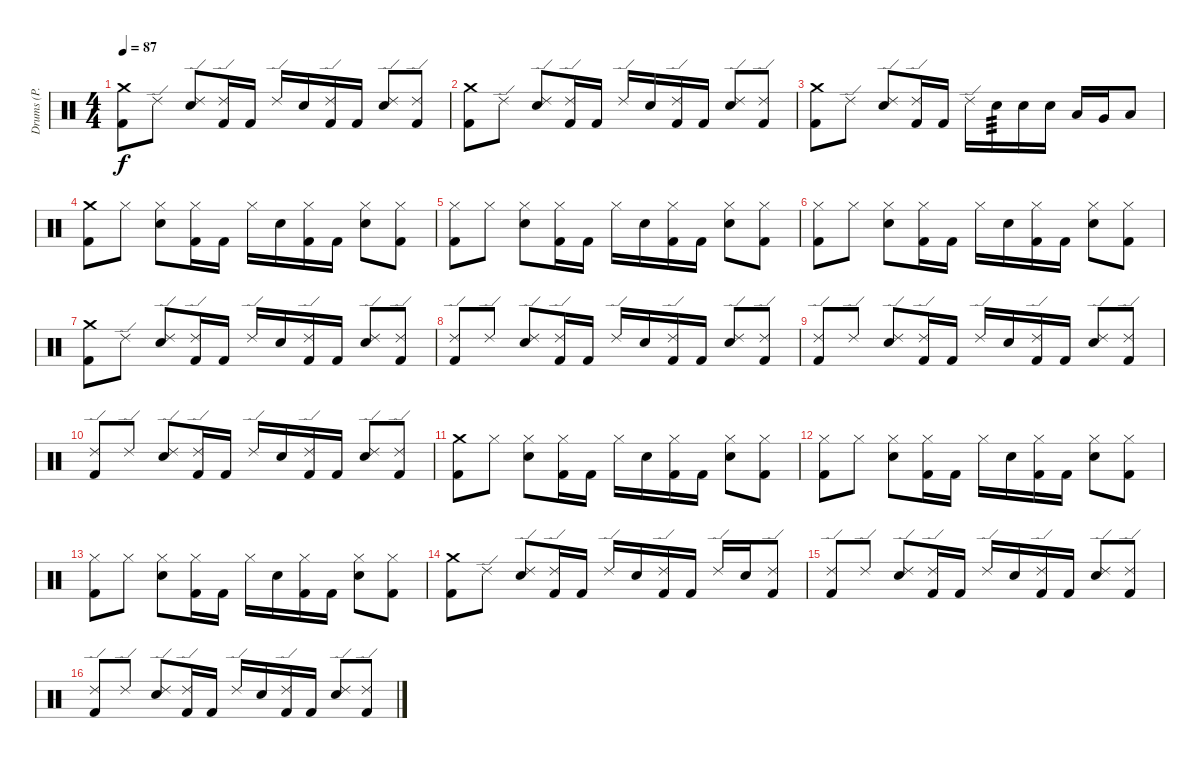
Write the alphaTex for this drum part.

\track ("Drums (P. Selway)" "Drums (P. ") {instrument percussion}
\staff {score}
\articulation defaults
\ts (4 4)
\tempo 87
\clef neutral
\ks c
("Crash medium (hit)" "Kick (hit) 2").8{dy f} "Ride (edge) 2".8 ("Ride (edge) 2" "Electric Snare (hit)").8 ("Ride (edge) 2" "Kick (hit) 2").16 "Kick (hit) 2".16 "Ride (edge) 2".16 "Electric Snare (hit)".16 ("Ride (edge) 2" "Kick (hit) 2").16 "Kick (hit) 2".16 ("Ride (edge) 2" "Electric Snare (hit)").8 ("Ride (edge) 2" "Kick (hit) 2").8 |
("Crash medium (hit)" "Kick (hit) 2").8 "Ride (edge) 2".8 ("Ride (edge) 2" "Electric Snare (hit)").8 ("Ride (edge) 2" "Kick (hit) 2").16 "Kick (hit) 2".16 "Ride (edge) 2".16 "Electric Snare (hit)".16 ("Ride (edge) 2" "Kick (hit) 2").16 "Kick (hit) 2".16 ("Ride (edge) 2" "Electric Snare (hit)").8 ("Ride (edge) 2" "Kick (hit) 2").8 |
("Crash medium (hit)" "Kick (hit) 2").8 "Ride (edge) 2".8 ("Ride (edge) 2" "Electric Snare (hit)").8 ("Ride (edge) 2" "Kick (hit) 2").16 "Kick (hit) 2".16 "Ride (edge) 2".16 "Electric Snare (hit)".16{tp 3} "Electric Snare (hit)".16 "Electric Snare (hit)".16 "Low Tom (hit)".16 "Very Low Tom (hit)".16 "Low Floor Tom (hit)".8 |
("Crash medium (hit)" "Kick (hit) 2").8 "Hi-Hat (closed)".8 ("Hi-Hat (closed)" "Electric Snare (hit)").8 ("Hi-Hat (closed)" "Kick (hit) 2").16 "Kick (hit) 2".16 "Hi-Hat (closed)".16 "Electric Snare (hit)".16 ("Hi-Hat (closed)" "Kick (hit) 2").16 "Kick (hit) 2".16 ("Hi-Hat (closed)" "Electric Snare (hit)").8 ("Hi-Hat (closed)" "Kick (hit) 2").8 |
("Hi-Hat (closed)" "Kick (hit) 2").8 "Hi-Hat (closed)".8 ("Hi-Hat (closed)" "Electric Snare (hit)").8 ("Hi-Hat (closed)" "Kick (hit) 2").16 "Kick (hit) 2".16 "Hi-Hat (closed)".16 "Electric Snare (hit)".16 ("Hi-Hat (closed)" "Kick (hit) 2").16 "Kick (hit) 2".16 ("Hi-Hat (closed)" "Electric Snare (hit)").8 ("Hi-Hat (closed)" "Kick (hit) 2").8 |
("Hi-Hat (closed)" "Kick (hit) 2").8 "Hi-Hat (closed)".8 ("Hi-Hat (closed)" "Electric Snare (hit)").8 ("Hi-Hat (closed)" "Kick (hit) 2").16 "Kick (hit) 2".16 "Hi-Hat (closed)".16 "Electric Snare (hit)".16 ("Hi-Hat (closed)" "Kick (hit) 2").16 "Kick (hit) 2".16 ("Hi-Hat (closed)" "Electric Snare (hit)").8 ("Hi-Hat (closed)" "Kick (hit) 2").8 |
("Crash medium (hit)" "Kick (hit) 2").8 "Ride (edge) 2".8 ("Ride (edge) 2" "Electric Snare (hit)").8 ("Ride (edge) 2" "Kick (hit) 2").16 "Kick (hit) 2".16 "Ride (edge) 2".16 "Electric Snare (hit)".16 ("Ride (edge) 2" "Kick (hit) 2").16 "Kick (hit) 2".16 ("Ride (edge) 2" "Electric Snare (hit)").8 ("Ride (edge) 2" "Kick (hit) 2").8 |
("Ride (edge) 2" "Kick (hit) 2").8 "Ride (edge) 2".8 ("Ride (edge) 2" "Electric Snare (hit)").8 ("Ride (edge) 2" "Kick (hit) 2").16 "Kick (hit) 2".16 "Ride (edge) 2".16 "Electric Snare (hit)".16 ("Ride (edge) 2" "Kick (hit) 2").16 "Kick (hit) 2".16 ("Ride (edge) 2" "Electric Snare (hit)").8 ("Ride (edge) 2" "Kick (hit) 2").8 |
("Ride (edge) 2" "Kick (hit) 2").8 "Ride (edge) 2".8 ("Ride (edge) 2" "Electric Snare (hit)").8 ("Ride (edge) 2" "Kick (hit) 2").16 "Kick (hit) 2".16 "Ride (edge) 2".16 "Electric Snare (hit)".16 ("Ride (edge) 2" "Kick (hit) 2").16 "Kick (hit) 2".16 ("Ride (edge) 2" "Electric Snare (hit)").8 ("Ride (edge) 2" "Kick (hit) 2").8 |
("Ride (edge) 2" "Kick (hit) 2").8 "Ride (edge) 2".8 ("Ride (edge) 2" "Electric Snare (hit)").8 ("Ride (edge) 2" "Kick (hit) 2").16 "Kick (hit) 2".16 "Ride (edge) 2".16 "Electric Snare (hit)".16 ("Ride (edge) 2" "Kick (hit) 2").16 "Kick (hit) 2".16 ("Ride (edge) 2" "Electric Snare (hit)").8 ("Ride (edge) 2" "Kick (hit) 2").8 |
("Crash medium (hit)" "Kick (hit) 2").8 "Hi-Hat (closed)".8 ("Hi-Hat (closed)" "Electric Snare (hit)").8 ("Hi-Hat (closed)" "Kick (hit) 2").16 "Kick (hit) 2".16 "Hi-Hat (closed)".16 "Electric Snare (hit)".16 ("Hi-Hat (closed)" "Kick (hit) 2").16 "Kick (hit) 2".16 ("Hi-Hat (closed)" "Electric Snare (hit)").8 ("Hi-Hat (closed)" "Kick (hit) 2").8 |
("Hi-Hat (closed)" "Kick (hit) 2").8 "Hi-Hat (closed)".8 ("Hi-Hat (closed)" "Electric Snare (hit)").8 ("Hi-Hat (closed)" "Kick (hit) 2").16 "Kick (hit) 2".16 "Hi-Hat (closed)".16 "Electric Snare (hit)".16 ("Hi-Hat (closed)" "Kick (hit) 2").16 "Kick (hit) 2".16 ("Hi-Hat (closed)" "Electric Snare (hit)").8 ("Hi-Hat (closed)" "Kick (hit) 2").8 |
("Hi-Hat (closed)" "Kick (hit) 2").8 "Hi-Hat (closed)".8 ("Hi-Hat (closed)" "Electric Snare (hit)").8 ("Hi-Hat (closed)" "Kick (hit) 2").16 "Kick (hit) 2".16 "Hi-Hat (closed)".16 "Electric Snare (hit)".16 ("Hi-Hat (closed)" "Kick (hit) 2").16 "Kick (hit) 2".16 ("Hi-Hat (closed)" "Electric Snare (hit)").8 ("Hi-Hat (closed)" "Kick (hit) 2").8 |
("Crash medium (hit)" "Kick (hit) 2").8 "Ride (edge) 2".8 ("Ride (edge) 2" "Electric Snare (hit)").8 ("Ride (edge) 2" "Kick (hit) 2").16 "Kick (hit) 2".16 "Ride (edge) 2".16 "Electric Snare (hit)".16 ("Ride (edge) 2" "Kick (hit) 2").16 "Kick (hit) 2".16 "Ride (edge) 2".16 "Electric Snare (hit)".16 ("Ride (edge) 2" "Kick (hit) 2").8 |
("Ride (edge) 2" "Kick (hit) 2").8 "Ride (edge) 2".8 ("Ride (edge) 2" "Electric Snare (hit)").8 ("Ride (edge) 2" "Kick (hit) 2").16 "Kick (hit) 2".16 "Ride (edge) 2".16 "Electric Snare (hit)".16 ("Ride (edge) 2" "Kick (hit) 2").16 "Kick (hit) 2".16 ("Ride (edge) 2" "Electric Snare (hit)").8 ("Ride (edge) 2" "Kick (hit) 2").8 |
("Ride (edge) 2" "Kick (hit) 2").8 "Ride (edge) 2".8 ("Ride (edge) 2" "Electric Snare (hit)").8 ("Ride (edge) 2" "Kick (hit) 2").16 "Kick (hit) 2".16 "Ride (edge) 2".16 "Electric Snare (hit)".16 ("Ride (edge) 2" "Kick (hit) 2").16 "Kick (hit) 2".16 ("Ride (edge) 2" "Electric Snare (hit)").8 ("Ride (edge) 2" "Kick (hit) 2").8
